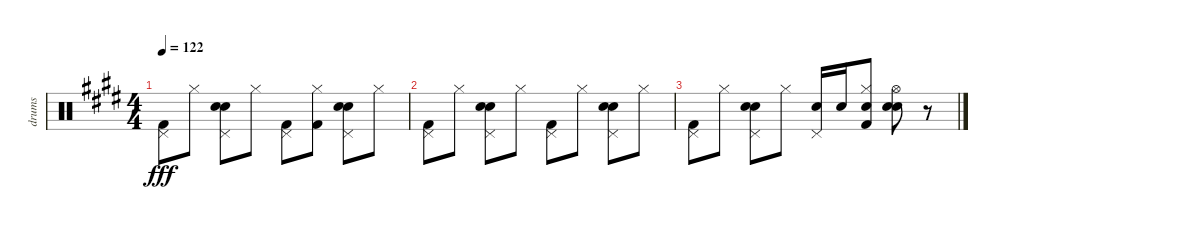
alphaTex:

\track ("drums" "drums") {instrument percussion}
\staff {score}
\articulation defaults
\ts (4 4)
\tempo 122
\clef neutral
\ks e
("Pedal Hi-Hat (hit)" "Kick (hit) 2").8{dy fff} "Hi-Hat (closed)".8 ("Hand Clap (hit)" "Pedal Hi-Hat (hit)" "Snare (hit) 2").8 "Hi-Hat (closed)".8 ("Pedal Hi-Hat (hit)" "Kick (hit) 2").8 ("Hi-Hat (closed)" "Kick (hit) 2").8 ("Hand Clap (hit)" "Pedal Hi-Hat (hit)" "Snare (hit) 2").8 "Hi-Hat (closed)".8 |
("Pedal Hi-Hat (hit)" "Kick (hit) 2").8 "Hi-Hat (closed)".8 ("Hand Clap (hit)" "Pedal Hi-Hat (hit)" "Snare (hit) 2").8 "Hi-Hat (closed)".8 ("Pedal Hi-Hat (hit)" "Kick (hit) 2").8 "Hi-Hat (closed)".8 ("Hand Clap (hit)" "Pedal Hi-Hat (hit)" "Snare (hit) 2").8 "Hi-Hat (closed)".8 |
("Kick (hit) 2" "Pedal Hi-Hat (hit)").8 "Hi-Hat (closed)".8 ("Hand Clap (hit)" "Pedal Hi-Hat (hit)" "Snare (hit) 2").8 "Hi-Hat (closed)".8 ("Snare (hit) 2" "Pedal Hi-Hat (hit)").16 "Snare (hit) 2".16 ("Kick (hit) 2" "Snare (hit) 2" "Hi-Hat (closed)").8 ("Hand Clap (hit)" "Hi-Hat (open)" "Snare (hit) 2").8 r.8
